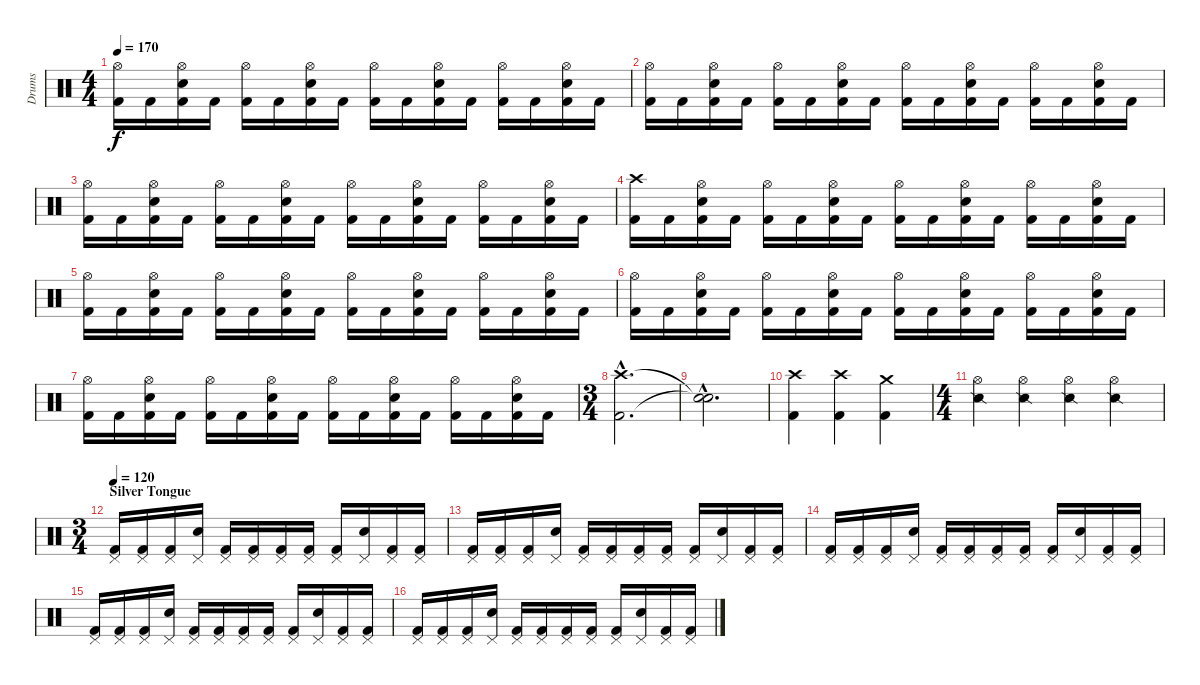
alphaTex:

\track ("Drums" "Drums") {instrument percussion}
\staff {score}
\articulation defaults
\ts (4 4)
\tempo 170
\clef neutral
\ks c
("Hi-Hat (open)" "Kick (hit) 2").16{dy f} "Kick (hit) 2".16 ("Hi-Hat (open)" "Electric Snare (hit)" "Kick (hit) 2").16 "Kick (hit) 2".16 ("Hi-Hat (open)" "Kick (hit) 2").16 "Kick (hit) 2".16 ("Hi-Hat (open)" "Electric Snare (hit)" "Kick (hit) 2").16 "Kick (hit) 2".16 ("Hi-Hat (open)" "Kick (hit) 2").16 "Kick (hit) 2".16 ("Hi-Hat (open)" "Electric Snare (hit)" "Kick (hit) 2").16 "Kick (hit) 2".16 ("Hi-Hat (open)" "Kick (hit) 2").16 "Kick (hit) 2".16 ("Hi-Hat (open)" "Electric Snare (hit)" "Kick (hit) 2").16 "Kick (hit) 2".16 |
("Hi-Hat (open)" "Kick (hit) 2").16 "Kick (hit) 2".16 ("Hi-Hat (open)" "Electric Snare (hit)" "Kick (hit) 2").16 "Kick (hit) 2".16 ("Hi-Hat (open)" "Kick (hit) 2").16 "Kick (hit) 2".16 ("Hi-Hat (open)" "Electric Snare (hit)" "Kick (hit) 2").16 "Kick (hit) 2".16 ("Hi-Hat (open)" "Kick (hit) 2").16 "Kick (hit) 2".16 ("Hi-Hat (open)" "Electric Snare (hit)" "Kick (hit) 2").16 "Kick (hit) 2".16 ("Hi-Hat (open)" "Kick (hit) 2").16 "Kick (hit) 2".16 ("Hi-Hat (open)" "Electric Snare (hit)" "Kick (hit) 2").16 "Kick (hit) 2".16 |
("Hi-Hat (open)" "Kick (hit) 2").16 "Kick (hit) 2".16 ("Hi-Hat (open)" "Electric Snare (hit)" "Kick (hit) 2").16 "Kick (hit) 2".16 ("Hi-Hat (open)" "Kick (hit) 2").16 "Kick (hit) 2".16 ("Hi-Hat (open)" "Electric Snare (hit)" "Kick (hit) 2").16 "Kick (hit) 2".16 ("Hi-Hat (open)" "Kick (hit) 2").16 "Kick (hit) 2".16 ("Hi-Hat (open)" "Electric Snare (hit)" "Kick (hit) 2").16 "Kick (hit) 2".16 ("Hi-Hat (open)" "Kick (hit) 2").16 "Kick (hit) 2".16 ("Hi-Hat (open)" "Electric Snare (hit)" "Kick (hit) 2").16 "Kick (hit) 2".16 |
("Crash high (hit)" "Kick (hit) 2").16 "Kick (hit) 2".16 ("Hi-Hat (open)" "Electric Snare (hit)" "Kick (hit) 2").16 "Kick (hit) 2".16 ("Hi-Hat (open)" "Kick (hit) 2").16 "Kick (hit) 2".16 ("Hi-Hat (open)" "Electric Snare (hit)" "Kick (hit) 2").16 "Kick (hit) 2".16 ("Hi-Hat (open)" "Kick (hit) 2").16 "Kick (hit) 2".16 ("Hi-Hat (open)" "Electric Snare (hit)" "Kick (hit) 2").16 "Kick (hit) 2".16 ("Hi-Hat (open)" "Kick (hit) 2").16 "Kick (hit) 2".16 ("Hi-Hat (open)" "Electric Snare (hit)" "Kick (hit) 2").16 "Kick (hit) 2".16 |
("Hi-Hat (open)" "Kick (hit) 2").16 "Kick (hit) 2".16 ("Hi-Hat (open)" "Electric Snare (hit)" "Kick (hit) 2").16 "Kick (hit) 2".16 ("Hi-Hat (open)" "Kick (hit) 2").16 "Kick (hit) 2".16 ("Hi-Hat (open)" "Electric Snare (hit)" "Kick (hit) 2").16 "Kick (hit) 2".16 ("Hi-Hat (open)" "Kick (hit) 2").16 "Kick (hit) 2".16 ("Hi-Hat (open)" "Electric Snare (hit)" "Kick (hit) 2").16 "Kick (hit) 2".16 ("Hi-Hat (open)" "Kick (hit) 2").16 "Kick (hit) 2".16 ("Hi-Hat (open)" "Electric Snare (hit)" "Kick (hit) 2").16 "Kick (hit) 2".16 |
("Hi-Hat (open)" "Kick (hit) 2").16 "Kick (hit) 2".16 ("Hi-Hat (open)" "Electric Snare (hit)" "Kick (hit) 2").16 "Kick (hit) 2".16 ("Hi-Hat (open)" "Kick (hit) 2").16 "Kick (hit) 2".16 ("Hi-Hat (open)" "Electric Snare (hit)" "Kick (hit) 2").16 "Kick (hit) 2".16 ("Hi-Hat (open)" "Kick (hit) 2").16 "Kick (hit) 2".16 ("Hi-Hat (open)" "Electric Snare (hit)" "Kick (hit) 2").16 "Kick (hit) 2".16 ("Hi-Hat (open)" "Kick (hit) 2").16 "Kick (hit) 2".16 ("Hi-Hat (open)" "Electric Snare (hit)" "Kick (hit) 2").16 "Kick (hit) 2".16 |
("Hi-Hat (open)" "Kick (hit) 2").16 "Kick (hit) 2".16 ("Hi-Hat (open)" "Electric Snare (hit)" "Kick (hit) 2").16 "Kick (hit) 2".16 ("Hi-Hat (open)" "Kick (hit) 2").16 "Kick (hit) 2".16 ("Hi-Hat (open)" "Electric Snare (hit)" "Kick (hit) 2").16 "Kick (hit) 2".16 ("Hi-Hat (open)" "Kick (hit) 2").16 "Kick (hit) 2".16 ("Hi-Hat (open)" "Electric Snare (hit)" "Kick (hit) 2").16 "Kick (hit) 2".16 ("Hi-Hat (open)" "Kick (hit) 2").16 "Kick (hit) 2".16 ("Hi-Hat (open)" "Electric Snare (hit)" "Kick (hit) 2").16 "Kick (hit) 2".16 |
\ts (3 4)
("Crash high (hit)"{hac} "Kick (hit) 2"{hac}).2{d} |
("Snare (hit)"{hac t} "Snare (hit)"{hac t}).2{d} |
("Crash high (hit)" "Kick (hit) 2").4 ("Crash high (hit)" "Kick (hit) 2").4 ("Crash medium (hit)" "Kick (hit) 2").4 |
\ts (4 4)
("Snare (side stick) 2" "Hi-Hat (open)").4 ("Snare (side stick) 2" "Hi-Hat (open)").4 ("Snare (side stick) 2" "Hi-Hat (open)").4 ("Snare (side stick) 2" "Hi-Hat (open)").4 |
\ts (3 4)
\section ("" "Silver Tongue")
\tempo 120
("Kick (hit) 2" "Pedal Hi-Hat (hit)").16 ("Kick (hit) 2" "Pedal Hi-Hat (hit)").16 ("Kick (hit) 2" "Pedal Hi-Hat (hit)").16 ("Pedal Hi-Hat (hit)" "Electric Snare (hit)").16 ("Kick (hit) 2" "Pedal Hi-Hat (hit)").16 ("Kick (hit) 2" "Pedal Hi-Hat (hit)").16 ("Kick (hit) 2" "Pedal Hi-Hat (hit)").16 ("Kick (hit) 2" "Pedal Hi-Hat (hit)").16 ("Kick (hit) 2" "Pedal Hi-Hat (hit)").16 ("Pedal Hi-Hat (hit)" "Electric Snare (hit)").16 ("Kick (hit) 2" "Pedal Hi-Hat (hit)").16 ("Kick (hit) 2" "Pedal Hi-Hat (hit)").16 |
("Kick (hit) 2" "Pedal Hi-Hat (hit)").16 ("Kick (hit) 2" "Pedal Hi-Hat (hit)").16 ("Kick (hit) 2" "Pedal Hi-Hat (hit)").16 ("Pedal Hi-Hat (hit)" "Electric Snare (hit)").16 ("Kick (hit) 2" "Pedal Hi-Hat (hit)").16 ("Kick (hit) 2" "Pedal Hi-Hat (hit)").16 ("Kick (hit) 2" "Pedal Hi-Hat (hit)").16 ("Kick (hit) 2" "Pedal Hi-Hat (hit)").16 ("Kick (hit) 2" "Pedal Hi-Hat (hit)").16 ("Pedal Hi-Hat (hit)" "Electric Snare (hit)").16 ("Kick (hit) 2" "Pedal Hi-Hat (hit)").16 ("Kick (hit) 2" "Pedal Hi-Hat (hit)").16 |
("Kick (hit) 2" "Pedal Hi-Hat (hit)").16 ("Kick (hit) 2" "Pedal Hi-Hat (hit)").16 ("Kick (hit) 2" "Pedal Hi-Hat (hit)").16 ("Pedal Hi-Hat (hit)" "Electric Snare (hit)").16 ("Kick (hit) 2" "Pedal Hi-Hat (hit)").16 ("Kick (hit) 2" "Pedal Hi-Hat (hit)").16 ("Kick (hit) 2" "Pedal Hi-Hat (hit)").16 ("Kick (hit) 2" "Pedal Hi-Hat (hit)").16 ("Kick (hit) 2" "Pedal Hi-Hat (hit)").16 ("Pedal Hi-Hat (hit)" "Electric Snare (hit)").16 ("Kick (hit) 2" "Pedal Hi-Hat (hit)").16 ("Kick (hit) 2" "Pedal Hi-Hat (hit)").16 |
("Kick (hit) 2" "Pedal Hi-Hat (hit)").16 ("Kick (hit) 2" "Pedal Hi-Hat (hit)").16 ("Kick (hit) 2" "Pedal Hi-Hat (hit)").16 ("Pedal Hi-Hat (hit)" "Electric Snare (hit)").16 ("Kick (hit) 2" "Pedal Hi-Hat (hit)").16 ("Kick (hit) 2" "Pedal Hi-Hat (hit)").16 ("Kick (hit) 2" "Pedal Hi-Hat (hit)").16 ("Kick (hit) 2" "Pedal Hi-Hat (hit)").16 ("Kick (hit) 2" "Pedal Hi-Hat (hit)").16 ("Pedal Hi-Hat (hit)" "Electric Snare (hit)").16 ("Kick (hit) 2" "Pedal Hi-Hat (hit)").16 ("Kick (hit) 2" "Pedal Hi-Hat (hit)").16 |
("Kick (hit) 2" "Pedal Hi-Hat (hit)").16 ("Kick (hit) 2" "Pedal Hi-Hat (hit)").16 ("Kick (hit) 2" "Pedal Hi-Hat (hit)").16 ("Pedal Hi-Hat (hit)" "Electric Snare (hit)").16 ("Kick (hit) 2" "Pedal Hi-Hat (hit)").16 ("Kick (hit) 2" "Pedal Hi-Hat (hit)").16 ("Kick (hit) 2" "Pedal Hi-Hat (hit)").16 ("Kick (hit) 2" "Pedal Hi-Hat (hit)").16 ("Kick (hit) 2" "Pedal Hi-Hat (hit)").16 ("Pedal Hi-Hat (hit)" "Electric Snare (hit)").16 ("Kick (hit) 2" "Pedal Hi-Hat (hit)").16 ("Kick (hit) 2" "Pedal Hi-Hat (hit)").16
